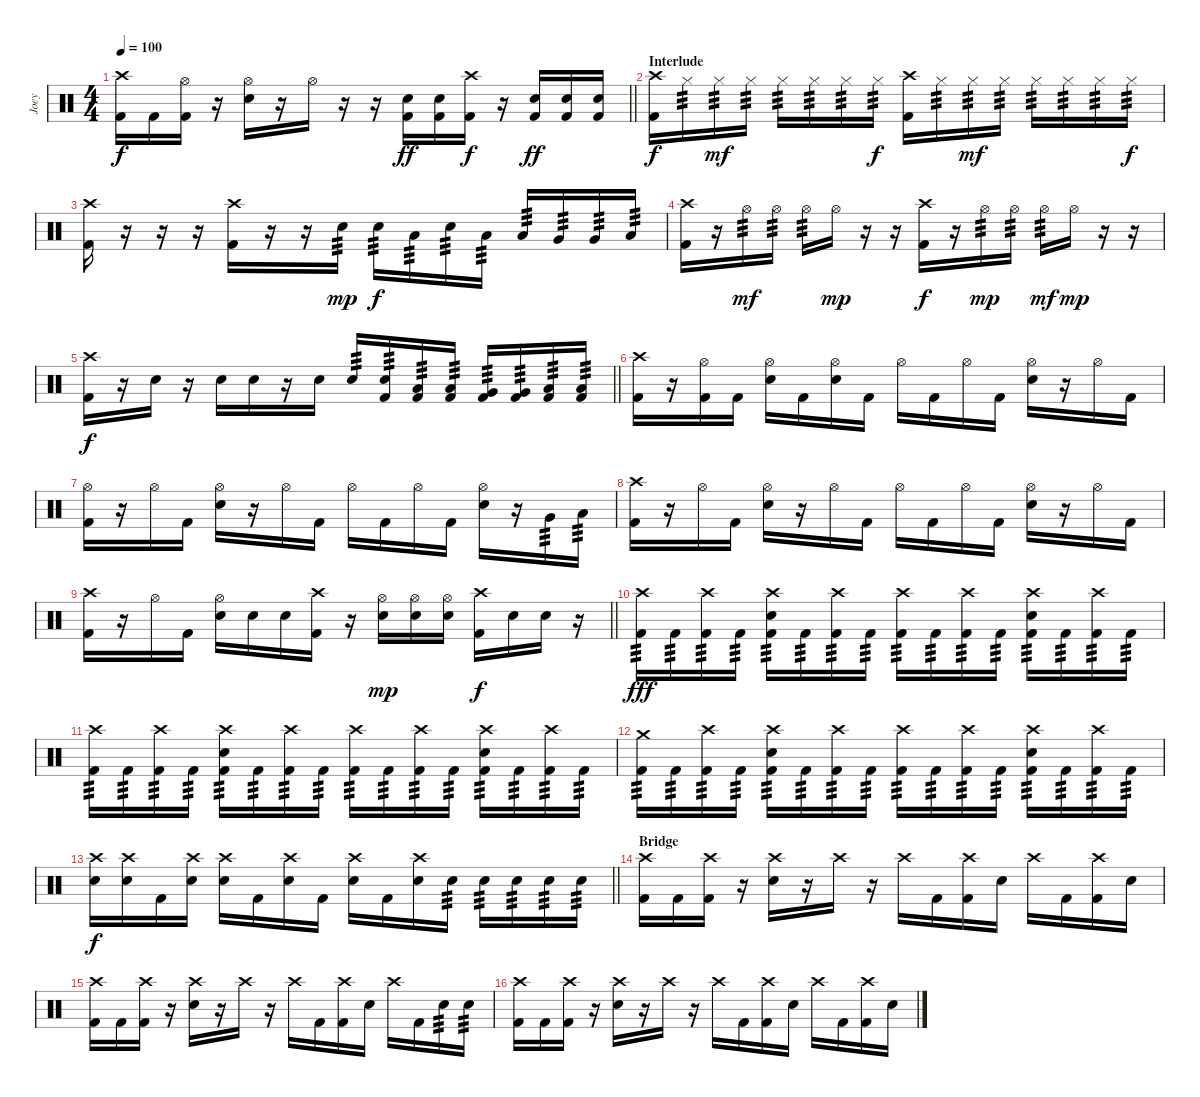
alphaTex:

\track ("Joey" "Joey") {instrument percussion}
\staff {score}
\articulation defaults
\ts (4 4)
\tempo 100
\clef neutral
\barLineRight lightlight
\ks c
("Crash high (hit)" "Kick (hit) 2").16{dy f} "Kick (hit) 2".16 ("Hi-Hat (open)" "Kick (hit) 2").16 r.16 ("Hi-Hat (open)" "Electric Snare (hit)").16 r.16 "Hi-Hat (open)".16 r.16 r.16 ("Kick (hit) 2" "Electric Snare (hit)").16{dy ff} ("Kick (hit) 2" "Electric Snare (hit)").16 ("Crash high (hit)" "Kick (hit) 2").16{dy f} r.16 ("Kick (hit) 2" "Electric Snare (hit)").16{dy ff} ("Kick (hit) 2" "Electric Snare (hit)").16 ("Kick (hit) 2" "Electric Snare (hit)").16 |
\section ("" "Interlude")
("Crash high (hit)" "Kick (hit) 2").16{dy f} "Hi-Hat (closed)".16{tp 3} "Hi-Hat (closed)".16{tp 3 dy mf} "Hi-Hat (closed)".16{tp 3} "Hi-Hat (closed)".16{tp 3} "Hi-Hat (closed)".16{tp 3} "Hi-Hat (closed)".16{tp 3} "Hi-Hat (closed)".16{tp 3 dy f} ("Crash high (hit)" "Kick (hit) 2").16 "Hi-Hat (closed)".16{tp 3} "Hi-Hat (closed)".16{tp 3 dy mf} "Hi-Hat (closed)".16{tp 3} "Hi-Hat (closed)".16{tp 3} "Hi-Hat (closed)".16{tp 3} "Hi-Hat (closed)".16{tp 3} "Hi-Hat (closed)".16{tp 3 dy f} |
("Crash high (hit)" "Kick (hit) 2").16 r.16 r.16 r.16 ("Crash high (hit)" "Kick (hit) 2").16 r.16 r.16 "Electric Snare (hit)".16{tp 3 dy mp} "Electric Snare (hit)".16{tp 3 dy f} "Low Tom (hit)".16{tp 3} "Electric Snare (hit)".16{tp 3} "Low Tom (hit)".16{tp 3} "Low Tom (hit)".16{tp 3} "Very Low Tom (hit)".16{tp 3} "Very Low Tom (hit)".16{tp 3} "Low Floor Tom (hit)".16{tp 3} |
("Crash high (hit)" "Kick (hit) 2").16 r.16 "Hi-Hat (open)".16{tp 3 dy mf} "Hi-Hat (open)".16{tp 3} "Hi-Hat (open)".16{tp 3} "Hi-Hat (open)".16{dy mp} r.16 r.16 ("Crash high (hit)" "Kick (hit) 2").16{dy f} r.16 "Hi-Hat (open)".16{tp 3 dy mp} "Hi-Hat (open)".16{tp 3} "Hi-Hat (open)".16{tp 3 dy mf} "Hi-Hat (open)".16{dy mp} r.16 r.16 |
\barLineRight lightlight
("Crash high (hit)" "Kick (hit) 2").16{dy f} r.16 "Electric Snare (hit)".16 r.16 "Electric Snare (hit)".16 "Electric Snare (hit)".16 r.16 "Electric Snare (hit)".16 "Electric Snare (hit)".16{tp 3} ("Electric Snare (hit)" "Kick (hit) 2").16{tp 3} ("Low Tom (hit)" "Kick (hit) 2").16{tp 3} ("Low Tom (hit)" "Kick (hit) 2").16{tp 3} ("Very Low Tom (hit)" "Kick (hit) 2").16{tp 3} ("Very Low Tom (hit)" "Kick (hit) 2").16{tp 3} ("Low Floor Tom (hit)" "Kick (hit) 2").16{tp 3} ("Low Floor Tom (hit)" "Kick (hit) 2").16{tp 3} |
("Crash high (hit)" "Kick (hit) 2").16 r.16 ("Hi-Hat (open)" "Kick (hit) 2").16 "Kick (hit) 2".16 ("Hi-Hat (open)" "Electric Snare (hit)").16 "Kick (hit) 2".16 ("Hi-Hat (open)" "Electric Snare (hit)").16 "Kick (hit) 2".16 "Hi-Hat (open)".16 "Kick (hit) 2".16 "Hi-Hat (open)".16 "Kick (hit) 2".16 ("Hi-Hat (open)" "Electric Snare (hit)").16 r.16 "Hi-Hat (open)".16 "Kick (hit) 2".16 |
("Hi-Hat (open)" "Kick (hit) 2").16 r.16 "Hi-Hat (open)".16 "Kick (hit) 2".16 ("Hi-Hat (open)" "Electric Snare (hit)").16 r.16 "Hi-Hat (open)".16 "Kick (hit) 2".16 "Hi-Hat (open)".16 "Kick (hit) 2".16 "Hi-Hat (open)".16 "Kick (hit) 2".16 ("Hi-Hat (open)" "Electric Snare (hit)").16 r.16 "Very Low Tom (hit)".16{tp 3} "Low Floor Tom (hit)".16{tp 3} |
("Crash high (hit)" "Kick (hit) 2").16 r.16 "Hi-Hat (open)".16 "Kick (hit) 2".16 ("Hi-Hat (open)" "Electric Snare (hit)").16 r.16 "Hi-Hat (open)".16 "Kick (hit) 2".16 "Hi-Hat (open)".16 "Kick (hit) 2".16 "Hi-Hat (open)".16 "Kick (hit) 2".16 ("Hi-Hat (open)" "Electric Snare (hit)").16 r.16 "Hi-Hat (open)".16 "Kick (hit) 2".16 |
\barLineRight lightlight
("Crash high (hit)" "Kick (hit) 2").16 r.16 "Hi-Hat (open)".16 "Kick (hit) 2".16 ("Hi-Hat (open)" "Electric Snare (hit)").16 "Electric Snare (hit)".16 "Electric Snare (hit)".16 ("Crash high (hit)" "Kick (hit) 2").16 r.16 ("Hi-Hat (open)" "Electric Snare (hit)").16{dy mp} ("Hi-Hat (open)" "Electric Snare (hit)").16 ("Hi-Hat (open)" "Electric Snare (hit)").16 ("Crash high (hit)" "Kick (hit) 2").16{dy f} "Electric Snare (hit)".16 "Electric Snare (hit)".16 r.16 |
("Crash high (hit)" "Kick (hit) 2").16{tp 3 dy fff} "Kick (hit) 2".16{tp 3} ("Crash high (hit)" "Kick (hit) 2").16{tp 3} "Kick (hit) 2".16{tp 3} ("Crash high (hit)" "Electric Snare (hit)" "Kick (hit) 2").16{tp 3} "Kick (hit) 2".16{tp 3} ("Crash high (hit)" "Kick (hit) 2").16{tp 3} "Kick (hit) 2".16{tp 3} ("Crash high (hit)" "Kick (hit) 2").16{tp 3} "Kick (hit) 2".16{tp 3} ("Crash high (hit)" "Kick (hit) 2").16{tp 3} "Kick (hit) 2".16{tp 3} ("Crash high (hit)" "Electric Snare (hit)" "Kick (hit) 2").16{tp 3} "Kick (hit) 2".16{tp 3} ("Crash high (hit)" "Kick (hit) 2").16{tp 3} "Kick (hit) 2".16{tp 3} |
("Crash high (hit)" "Kick (hit) 2").16{tp 3} "Kick (hit) 2".16{tp 3} ("Crash high (hit)" "Kick (hit) 2").16{tp 3} "Kick (hit) 2".16{tp 3} ("Crash high (hit)" "Electric Snare (hit)" "Kick (hit) 2").16{tp 3} "Kick (hit) 2".16{tp 3} ("Crash high (hit)" "Kick (hit) 2").16{tp 3} "Kick (hit) 2".16{tp 3} ("Crash high (hit)" "Kick (hit) 2").16{tp 3} "Kick (hit) 2".16{tp 3} ("Crash high (hit)" "Kick (hit) 2").16{tp 3} "Kick (hit) 2".16{tp 3} ("Crash high (hit)" "Electric Snare (hit)" "Kick (hit) 2").16{tp 3} "Kick (hit) 2".16{tp 3} ("Crash high (hit)" "Kick (hit) 2").16{tp 3} "Kick (hit) 2".16{tp 3} |
("Crash medium (hit)" "Kick (hit) 2").16{tp 3} "Kick (hit) 2".16{tp 3} ("Crash high (hit)" "Kick (hit) 2").16{tp 3} "Kick (hit) 2".16{tp 3} ("Crash high (hit)" "Electric Snare (hit)" "Kick (hit) 2").16{tp 3} "Kick (hit) 2".16{tp 3} ("Crash high (hit)" "Kick (hit) 2").16{tp 3} "Kick (hit) 2".16{tp 3} ("Crash high (hit)" "Kick (hit) 2").16{tp 3} "Kick (hit) 2".16{tp 3} ("Crash high (hit)" "Kick (hit) 2").16{tp 3} "Kick (hit) 2".16{tp 3} ("Crash high (hit)" "Electric Snare (hit)" "Kick (hit) 2").16{tp 3} "Kick (hit) 2".16{tp 3} ("Crash high (hit)" "Kick (hit) 2").16{tp 3} "Kick (hit) 2".16{tp 3} |
\barLineRight lightlight
("Crash high (hit)" "Electric Snare (hit)").16{dy f} ("Crash high (hit)" "Electric Snare (hit)").16 "Kick (hit) 2".16 ("Crash high (hit)" "Electric Snare (hit)").16 ("Crash high (hit)" "Electric Snare (hit)").16 "Kick (hit) 2".16 ("Crash high (hit)" "Electric Snare (hit)").16 "Kick (hit) 2".16 ("Crash high (hit)" "Electric Snare (hit)").16 "Kick (hit) 2".16 ("Crash high (hit)" "Electric Snare (hit)").16 "Electric Snare (hit)".16{tp 3} "Electric Snare (hit)".16{tp 3} "Electric Snare (hit)".16{tp 3} "Electric Snare (hit)".16{tp 3} "Electric Snare (hit)".16{tp 3} |
\section ("" "Bridge")
("Crash high (hit)" "Kick (hit) 2").16 "Kick (hit) 2".16 ("Crash high (hit)" "Kick (hit) 2").16 r.16 ("Crash high (hit)" "Electric Snare (hit)").16 r.16 "Crash high (hit)".16 r.16 "Crash high (hit)".16 "Kick (hit) 2".16 ("Crash high (hit)" "Kick (hit) 2").16 "Electric Snare (hit)".16 "Crash high (hit)".16 "Kick (hit) 2".16 ("Crash high (hit)" "Kick (hit) 2").16 "Electric Snare (hit)".16 |
("Crash high (hit)" "Kick (hit) 2").16 "Kick (hit) 2".16 ("Crash high (hit)" "Kick (hit) 2").16 r.16 ("Crash high (hit)" "Electric Snare (hit)").16 r.16 "Crash high (hit)".16 r.16 "Crash high (hit)".16 "Kick (hit) 2".16 ("Crash high (hit)" "Kick (hit) 2").16 "Electric Snare (hit)".16 "Crash high (hit)".16 "Kick (hit) 2".16 "Electric Snare (hit)".16{tp 3} "Electric Snare (hit)".16{tp 3} |
("Crash high (hit)" "Kick (hit) 2").16 "Kick (hit) 2".16 ("Crash high (hit)" "Kick (hit) 2").16 r.16 ("Crash high (hit)" "Electric Snare (hit)").16 r.16 "Crash high (hit)".16 r.16 "Crash high (hit)".16 "Kick (hit) 2".16 ("Crash high (hit)" "Kick (hit) 2").16 "Electric Snare (hit)".16 "Crash high (hit)".16 "Kick (hit) 2".16 ("Crash high (hit)" "Kick (hit) 2").16 "Electric Snare (hit)".16
